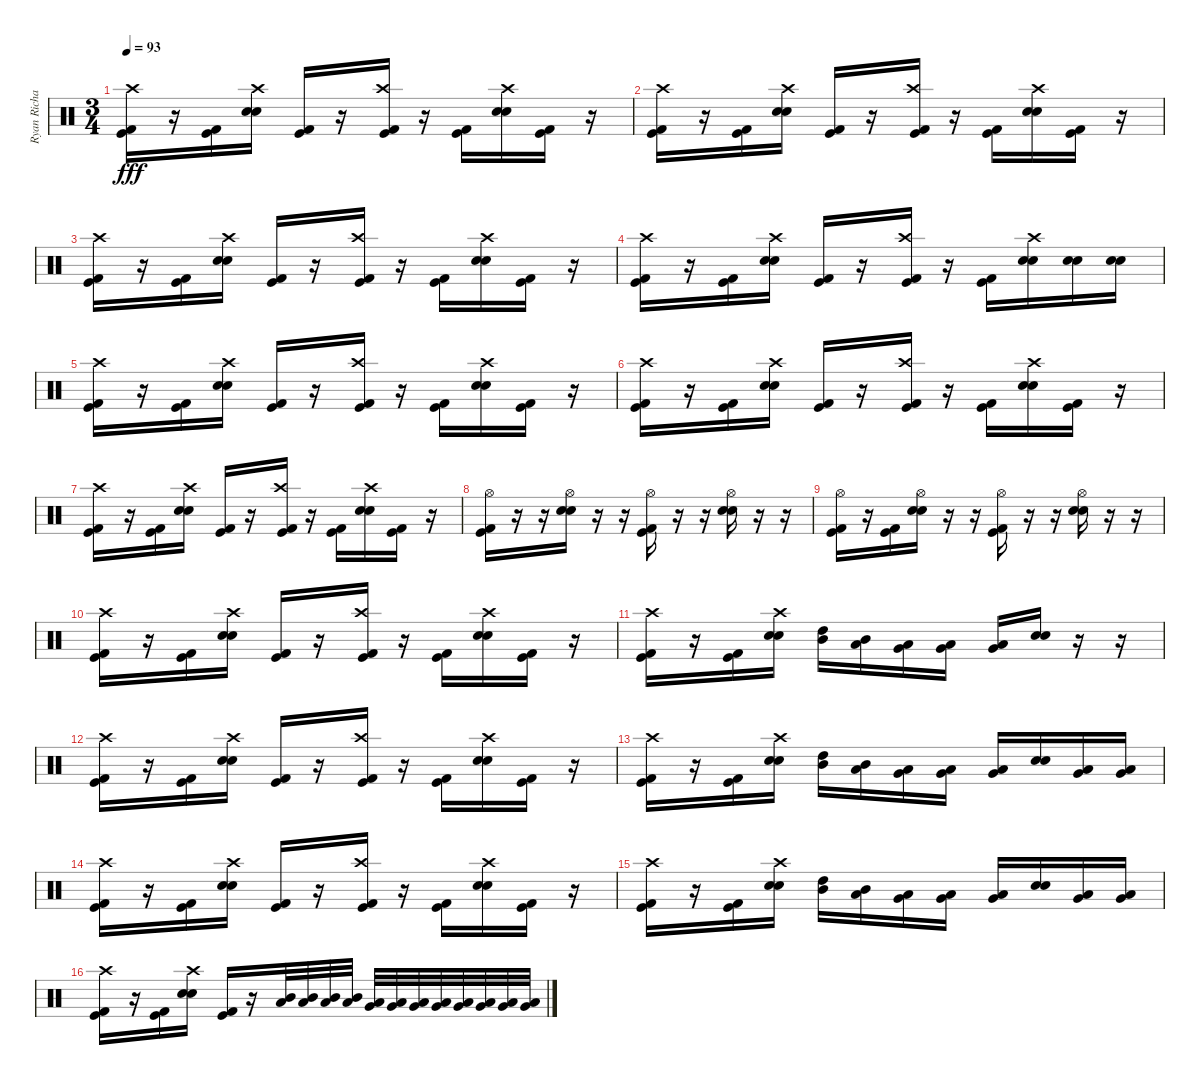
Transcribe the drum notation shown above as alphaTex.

\track ("Ryan Richards" "Ryan Richa") {instrument percussion}
\staff {score}
\articulation defaults
\ts (3 4)
\tempo 93
\clef neutral
\ks c
("Kick (hit)" "Crash high (hit)" "Kick (hit) 2").16{dy fff volume 16} r.16 ("Kick (hit)" "Kick (hit) 2").16 ("Snare (hit) 2" "Crash high (hit)" "Electric Snare (hit)").16 ("Kick (hit)" "Kick (hit) 2").16 r.16 ("Kick (hit)" "Crash high (hit)" "Kick (hit) 2").16 r.16 ("Kick (hit)" "Kick (hit) 2").16 ("Snare (hit) 2" "Crash high (hit)" "Electric Snare (hit)").16 ("Kick (hit)" "Kick (hit) 2").16 r.16 |
("Kick (hit)" "Crash high (hit)" "Kick (hit) 2").16{volume 16} r.16 ("Kick (hit)" "Kick (hit) 2").16 ("Snare (hit) 2" "Crash high (hit)" "Electric Snare (hit)").16 ("Kick (hit)" "Kick (hit) 2").16 r.16 ("Kick (hit)" "Crash high (hit)" "Kick (hit) 2").16 r.16 ("Kick (hit)" "Kick (hit) 2").16 ("Snare (hit) 2" "Crash high (hit)" "Electric Snare (hit)").16 ("Kick (hit)" "Kick (hit) 2").16 r.16 |
("Kick (hit)" "Crash high (hit)" "Kick (hit) 2").16{volume 16} r.16 ("Kick (hit)" "Kick (hit) 2").16 ("Snare (hit) 2" "Crash high (hit)" "Electric Snare (hit)").16 ("Kick (hit)" "Kick (hit) 2").16 r.16 ("Kick (hit)" "Crash high (hit)" "Kick (hit) 2").16 r.16 ("Kick (hit)" "Kick (hit) 2").16 ("Snare (hit) 2" "Crash high (hit)" "Electric Snare (hit)").16 ("Kick (hit)" "Kick (hit) 2").16 r.16 |
("Kick (hit)" "Crash high (hit)" "Kick (hit) 2").16{volume 16} r.16 ("Kick (hit)" "Kick (hit) 2").16 ("Snare (hit) 2" "Crash high (hit)" "Electric Snare (hit)").16 ("Kick (hit)" "Kick (hit) 2").16 r.16 ("Kick (hit)" "Crash high (hit)" "Kick (hit) 2").16 r.16 ("Kick (hit)" "Kick (hit) 2").16 ("Snare (hit) 2" "Crash high (hit)" "Electric Snare (hit)").16 ("Snare (hit) 2" "Electric Snare (hit)").16 ("Snare (hit) 2" "Electric Snare (hit)").16 |
("Kick (hit)" "Crash high (hit)" "Kick (hit) 2").16{volume 16} r.16 ("Kick (hit)" "Kick (hit) 2").16 ("Snare (hit) 2" "Crash high (hit)" "Electric Snare (hit)").16 ("Kick (hit)" "Kick (hit) 2").16 r.16 ("Kick (hit)" "Crash high (hit)" "Kick (hit) 2").16 r.16 ("Kick (hit)" "Kick (hit) 2").16 ("Snare (hit) 2" "Crash high (hit)" "Electric Snare (hit)").16 ("Kick (hit)" "Kick (hit) 2").16 r.16 |
("Kick (hit)" "Crash high (hit)" "Kick (hit) 2").16{volume 16} r.16 ("Kick (hit)" "Kick (hit) 2").16 ("Snare (hit) 2" "Crash high (hit)" "Electric Snare (hit)").16 ("Kick (hit)" "Kick (hit) 2").16 r.16 ("Kick (hit)" "Crash high (hit)" "Kick (hit) 2").16 r.16 ("Kick (hit)" "Kick (hit) 2").16 ("Snare (hit) 2" "Crash high (hit)" "Electric Snare (hit)").16 ("Kick (hit)" "Kick (hit) 2").16 r.16 |
("Kick (hit)" "Crash high (hit)" "Kick (hit) 2").16{volume 16} r.16 ("Kick (hit)" "Kick (hit) 2").16 ("Snare (hit) 2" "Crash high (hit)" "Electric Snare (hit)").16 ("Kick (hit)" "Kick (hit) 2").16 r.16 ("Kick (hit)" "Crash high (hit)" "Kick (hit) 2").16 r.16 ("Kick (hit)" "Kick (hit) 2").16 ("Snare (hit) 2" "Crash high (hit)" "Electric Snare (hit)").16 ("Kick (hit)" "Kick (hit) 2").16 r.16 |
("Kick (hit)" "Hi-Hat (open)" "Kick (hit) 2").16 r.16 r.16 ("Snare (hit) 2" "Hi-Hat (open)" "Electric Snare (hit)").16 r.16 r.16 ("Kick (hit)" "Hi-Hat (open)" "Kick (hit) 2").16 r.16 r.16 ("Snare (hit) 2" "Hi-Hat (open)" "Electric Snare (hit)").16 r.16 r.16 |
("Kick (hit)" "Hi-Hat (open)" "Kick (hit) 2").16 r.16 ("Kick (hit)" "Kick (hit) 2").16 ("Snare (hit) 2" "Hi-Hat (open)" "Electric Snare (hit)").16 r.16 r.16 ("Kick (hit)" "Hi-Hat (open)" "Kick (hit) 2").16 r.16 r.16 ("Snare (hit) 2" "Hi-Hat (open)" "Electric Snare (hit)").16 r.16 r.16 |
("Kick (hit)" "Crash high (hit)" "Kick (hit) 2").16{volume 16} r.16 ("Kick (hit)" "Kick (hit) 2").16 ("Snare (hit) 2" "Crash high (hit)" "Electric Snare (hit)").16 ("Kick (hit)" "Kick (hit) 2").16 r.16 ("Kick (hit)" "Crash high (hit)" "Kick (hit) 2").16 r.16 ("Kick (hit)" "Kick (hit) 2").16 ("Snare (hit) 2" "Crash high (hit)" "Electric Snare (hit)").16 ("Kick (hit)" "Kick (hit) 2").16 r.16 |
("Kick (hit)" "Crash high (hit)" "Kick (hit) 2").16{volume 16} r.16 ("Kick (hit)" "Kick (hit) 2").16 ("Snare (hit) 2" "Crash high (hit)" "Electric Snare (hit)").16 ("High Tom (hit)" "Mid Tom (hit)").16 ("Mid Tom (hit)" "Low Tom (hit)").16 ("Low Tom (hit)" "Very Low Tom (hit)").16 ("Very Low Tom (hit)" "Low Floor Tom (hit)").16 ("Low Floor Tom (hit)" "Very Low Tom (hit)").16 ("Snare (hit) 2" "Electric Snare (hit)").16 r.16 r.16 |
("Kick (hit)" "Crash high (hit)" "Kick (hit) 2").16{volume 16} r.16 ("Kick (hit)" "Kick (hit) 2").16 ("Snare (hit) 2" "Crash high (hit)" "Electric Snare (hit)").16 ("Kick (hit)" "Kick (hit) 2").16 r.16 ("Kick (hit)" "Crash high (hit)" "Kick (hit) 2").16 r.16 ("Kick (hit)" "Kick (hit) 2").16 ("Snare (hit) 2" "Crash high (hit)" "Electric Snare (hit)").16 ("Kick (hit)" "Kick (hit) 2").16 r.16 |
("Kick (hit)" "Crash high (hit)" "Kick (hit) 2").16{volume 16} r.16 ("Kick (hit)" "Kick (hit) 2").16 ("Snare (hit) 2" "Crash high (hit)" "Electric Snare (hit)").16 ("High Tom (hit)" "Mid Tom (hit)").16 ("Mid Tom (hit)" "Low Tom (hit)").16 ("Low Tom (hit)" "Very Low Tom (hit)").16 ("Very Low Tom (hit)" "Low Floor Tom (hit)").16 ("Low Floor Tom (hit)" "Very Low Tom (hit)").16 ("Snare (hit) 2" "Electric Snare (hit)").16 ("Low Tom (hit)" "Very Low Tom (hit)").16 ("Very Low Tom (hit)" "Low Floor Tom (hit)").16 |
("Kick (hit)" "Crash high (hit)" "Kick (hit) 2").16{volume 16} r.16 ("Kick (hit)" "Kick (hit) 2").16 ("Snare (hit) 2" "Crash high (hit)" "Electric Snare (hit)").16 ("Kick (hit)" "Kick (hit) 2").16 r.16 ("Kick (hit)" "Crash high (hit)" "Kick (hit) 2").16 r.16 ("Kick (hit)" "Kick (hit) 2").16 ("Snare (hit) 2" "Crash high (hit)" "Electric Snare (hit)").16 ("Kick (hit)" "Kick (hit) 2").16 r.16 |
("Kick (hit)" "Crash high (hit)" "Kick (hit) 2").16{volume 16} r.16 ("Kick (hit)" "Kick (hit) 2").16 ("Snare (hit) 2" "Crash high (hit)" "Electric Snare (hit)").16 ("High Tom (hit)" "Mid Tom (hit)").16 ("Mid Tom (hit)" "Low Tom (hit)").16 ("Low Tom (hit)" "Very Low Tom (hit)").16 ("Very Low Tom (hit)" "Low Floor Tom (hit)").16 ("Low Floor Tom (hit)" "Very Low Tom (hit)").16 ("Snare (hit) 2" "Electric Snare (hit)").16 ("Low Tom (hit)" "Very Low Tom (hit)").16 ("Very Low Tom (hit)" "Low Floor Tom (hit)").16 |
("Kick (hit)" "Crash high (hit)" "Kick (hit) 2").16{volume 16} r.16 ("Kick (hit)" "Kick (hit) 2").16 ("Snare (hit) 2" "Crash high (hit)" "Electric Snare (hit)").16 ("Kick (hit)" "Kick (hit) 2").16 r.16 ("Mid Tom (hit)" "Low Tom (hit)").32 ("Mid Tom (hit)" "Low Tom (hit)").32 ("Mid Tom (hit)" "Low Tom (hit)").32 ("Mid Tom (hit)" "Low Tom (hit)").32 ("Low Tom (hit)" "Very Low Tom (hit)").32 ("Low Tom (hit)" "Very Low Tom (hit)").32 ("Low Tom (hit)" "Very Low Tom (hit)").32 ("Low Tom (hit)" "Very Low Tom (hit)").32 ("Very Low Tom (hit)" "Low Floor Tom (hit)").32 ("Very Low Tom (hit)" "Low Floor Tom (hit)").32 ("Very Low Tom (hit)" "Low Floor Tom (hit)").32 ("Very Low Tom (hit)" "Low Floor Tom (hit)").32
